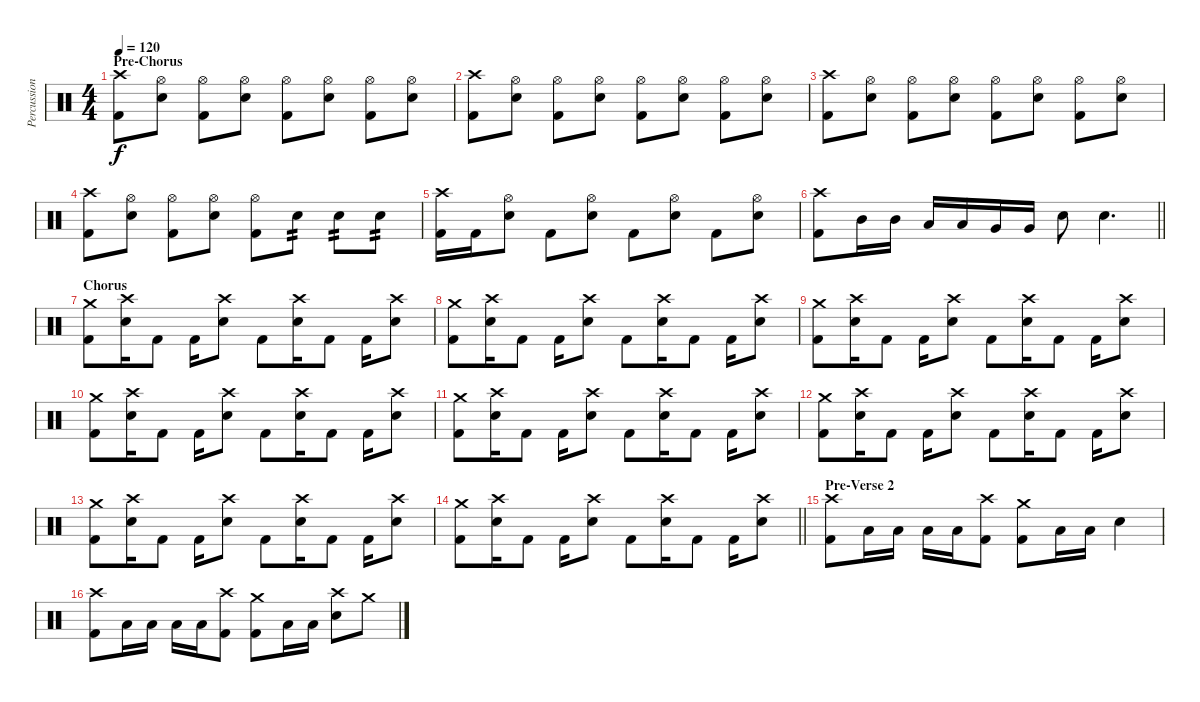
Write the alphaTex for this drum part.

\track ("Percussion" "Percussion") {instrument percussion}
\staff {score}
\articulation defaults
\ts (4 4)
\section ("" "Pre-Chorus")
\tempo 120
\clef neutral
\ks c
("Crash high (hit)" "Kick (hit) 2").8{dy f} ("Hi-Hat (open)" "Snare (hit) 2").8 ("Hi-Hat (open)" "Kick (hit) 2").8 ("Hi-Hat (open)" "Snare (hit) 2").8 ("Hi-Hat (open)" "Kick (hit) 2").8 ("Hi-Hat (open)" "Snare (hit) 2").8 ("Hi-Hat (open)" "Kick (hit) 2").8 ("Hi-Hat (open)" "Snare (hit) 2").8 |
("Crash high (hit)" "Kick (hit) 2").8 ("Hi-Hat (open)" "Snare (hit) 2").8 ("Hi-Hat (open)" "Kick (hit) 2").8 ("Hi-Hat (open)" "Snare (hit) 2").8 ("Hi-Hat (open)" "Kick (hit) 2").8 ("Hi-Hat (open)" "Snare (hit) 2").8 ("Hi-Hat (open)" "Kick (hit) 2").8 ("Hi-Hat (open)" "Snare (hit) 2").8 |
("Crash high (hit)" "Kick (hit) 2").8 ("Hi-Hat (open)" "Snare (hit) 2").8 ("Hi-Hat (open)" "Kick (hit) 2").8 ("Hi-Hat (open)" "Snare (hit) 2").8 ("Hi-Hat (open)" "Kick (hit) 2").8 ("Hi-Hat (open)" "Snare (hit) 2").8 ("Hi-Hat (open)" "Kick (hit) 2").8 ("Hi-Hat (open)" "Snare (hit) 2").8 |
("Crash high (hit)" "Kick (hit) 2").8 ("Hi-Hat (open)" "Snare (hit) 2").8 ("Hi-Hat (open)" "Kick (hit) 2").8 ("Hi-Hat (open)" "Snare (hit) 2").8 ("Hi-Hat (open)" "Kick (hit) 2").8 "Snare (hit) 2".8{tp 2} "Snare (hit) 2".8{tp 2} "Snare (hit) 2".8{tp 2} |
("Crash high (hit)" "Kick (hit) 2").16 "Kick (hit) 2".16 ("Hi-Hat (open)" "Snare (hit) 2").8 "Kick (hit) 2".8 ("Hi-Hat (open)" "Snare (hit) 2").8 "Kick (hit) 2".8 ("Hi-Hat (open)" "Snare (hit) 2").8 "Kick (hit) 2".8 ("Hi-Hat (open)" "Snare (hit) 2").8 |
\barLineRight lightlight
("Crash high (hit)" "Kick (hit) 2").8 "Mid Tom (hit)".16 "Mid Tom (hit)".16 "Low Tom (hit)".16 "Low Tom (hit)".16 "Very Low Tom (hit)".16 "Very Low Tom (hit)".16 "Snare (hit) 2".8 "Snare (hit) 2".4{d} |
\section ("" "Chorus")
("Crash medium (hit)" "Kick (hit) 2").8 ("Crash high (hit)" "Snare (hit) 2").16 "Kick (hit) 2".8 "Kick (hit) 2".16 ("Crash high (hit)" "Snare (hit) 2").8 "Kick (hit) 2".8 ("Crash high (hit)" "Snare (hit) 2").16 "Kick (hit) 2".8 "Kick (hit) 2".16 ("Crash high (hit)" "Snare (hit) 2").8 |
("Crash medium (hit)" "Kick (hit) 2").8 ("Crash high (hit)" "Snare (hit) 2").16 "Kick (hit) 2".8 "Kick (hit) 2".16 ("Crash high (hit)" "Snare (hit) 2").8 "Kick (hit) 2".8 ("Crash high (hit)" "Snare (hit) 2").16 "Kick (hit) 2".8 "Kick (hit) 2".16 ("Crash high (hit)" "Snare (hit) 2").8 |
("Crash medium (hit)" "Kick (hit) 2").8 ("Crash high (hit)" "Snare (hit) 2").16 "Kick (hit) 2".8 "Kick (hit) 2".16 ("Crash high (hit)" "Snare (hit) 2").8 "Kick (hit) 2".8 ("Crash high (hit)" "Snare (hit) 2").16 "Kick (hit) 2".8 "Kick (hit) 2".16 ("Crash high (hit)" "Snare (hit) 2").8 |
("Crash medium (hit)" "Kick (hit) 2").8 ("Crash high (hit)" "Snare (hit) 2").16 "Kick (hit) 2".8 "Kick (hit) 2".16 ("Crash high (hit)" "Snare (hit) 2").8 "Kick (hit) 2".8 ("Crash high (hit)" "Snare (hit) 2").16 "Kick (hit) 2".8 "Kick (hit) 2".16 ("Crash high (hit)" "Snare (hit) 2").8 |
("Crash medium (hit)" "Kick (hit) 2").8 ("Crash high (hit)" "Snare (hit) 2").16 "Kick (hit) 2".8 "Kick (hit) 2".16 ("Crash high (hit)" "Snare (hit) 2").8 "Kick (hit) 2".8 ("Crash high (hit)" "Snare (hit) 2").16 "Kick (hit) 2".8 "Kick (hit) 2".16 ("Crash high (hit)" "Snare (hit) 2").8 |
("Crash medium (hit)" "Kick (hit) 2").8 ("Crash high (hit)" "Snare (hit) 2").16 "Kick (hit) 2".8 "Kick (hit) 2".16 ("Crash high (hit)" "Snare (hit) 2").8 "Kick (hit) 2".8 ("Crash high (hit)" "Snare (hit) 2").16 "Kick (hit) 2".8 "Kick (hit) 2".16 ("Crash high (hit)" "Snare (hit) 2").8 |
("Crash medium (hit)" "Kick (hit) 2").8 ("Crash high (hit)" "Snare (hit) 2").16 "Kick (hit) 2".8 "Kick (hit) 2".16 ("Crash high (hit)" "Snare (hit) 2").8 "Kick (hit) 2".8 ("Crash high (hit)" "Snare (hit) 2").16 "Kick (hit) 2".8 "Kick (hit) 2".16 ("Crash high (hit)" "Snare (hit) 2").8 |
\barLineRight lightlight
("Crash medium (hit)" "Kick (hit) 2").8 ("Crash high (hit)" "Snare (hit) 2").16 "Kick (hit) 2".8 "Kick (hit) 2".16 ("Crash high (hit)" "Snare (hit) 2").8 "Kick (hit) 2".8 ("Crash high (hit)" "Snare (hit) 2").16 "Kick (hit) 2".8 "Kick (hit) 2".16 ("Crash high (hit)" "Snare (hit) 2").8 |
\section ("" "Pre-Verse 2")
("Crash high (hit)" "Kick (hit) 2").8 "Low Tom (hit)".16 "Low Tom (hit)".16 "Low Tom (hit)".16 "Low Tom (hit)".16 ("Crash high (hit)" "Kick (hit) 2").8 ("Crash medium (hit)" "Kick (hit) 2").8 "Low Tom (hit)".16 "Low Tom (hit)".16 "Snare (hit) 2".4 |
("Crash high (hit)" "Kick (hit) 2").8 "Low Tom (hit)".16 "Low Tom (hit)".16 "Low Tom (hit)".16 "Low Tom (hit)".16 ("Crash high (hit)" "Kick (hit) 2").8 ("Crash medium (hit)" "Kick (hit) 2").8 "Low Tom (hit)".16 "Low Tom (hit)".16 ("Crash high (hit)" "Snare (hit) 2").8 "Crash medium (hit)".8
